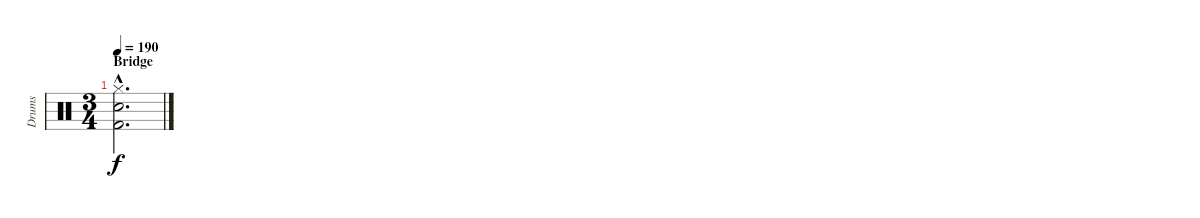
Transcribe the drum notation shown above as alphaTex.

\track ("Drums" "Drums") {instrument percussion}
\staff {score}
\articulation defaults
\ts (3 4)
\section ("" "Bridge")
\tempo 190
\clef neutral
\ks c
("Hi-Hat (closed)"{hac} "Snare (hit) 2"{hac} "Kick (hit) 2"{hac}).2{d dy f}
